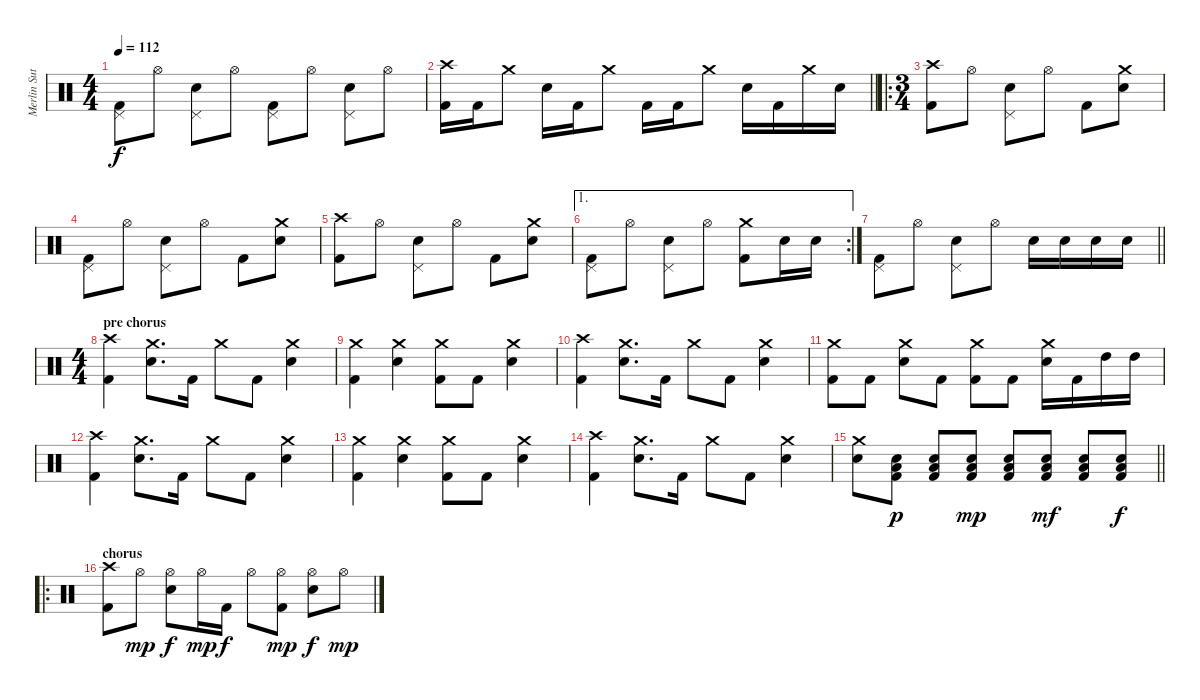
\track ("Merlin Sutter" "Merlin Sut") {instrument percussion}
\staff {score}
\articulation defaults
\ts (4 4)
\tempo 112
\clef neutral
\ks c
("Pedal Hi-Hat (hit)" "Kick (hit) 2").8{dy f} "Hi-Hat (open)".8 ("Pedal Hi-Hat (hit)" "Snare (hit) 2").8 "Hi-Hat (open)".8 ("Pedal Hi-Hat (hit)" "Kick (hit) 2").8 "Hi-Hat (open)".8 ("Pedal Hi-Hat (hit)" "Snare (hit) 2").8 "Hi-Hat (open)".8 |
\barLineRight lightlight
("Crash high (hit)" "Kick (hit) 2").16 "Kick (hit) 2".16 "Crash medium (hit)".8 "Snare (hit) 2".16 "Kick (hit) 2".16 "Crash medium (hit)".8 "Kick (hit) 2".16 "Kick (hit) 2".16 "Crash medium (hit)".8 "Snare (hit) 2".16 "Kick (hit) 2".16 "Crash medium (hit)".16 "Snare (hit) 2".16 |
\ro
\ts (3 4)
\section ("" "")
("Crash high (hit)" "Kick (hit) 2").8 "Hi-Hat (open)".8 ("Pedal Hi-Hat (hit)" "Snare (hit) 2").8 "Hi-Hat (open)".8 "Kick (hit) 2".8 ("Crash medium (hit)" "Snare (hit) 2").8 |
("Pedal Hi-Hat (hit)" "Kick (hit) 2").8 "Hi-Hat (open)".8 ("Pedal Hi-Hat (hit)" "Snare (hit) 2").8 "Hi-Hat (open)".8 "Kick (hit) 2".8 ("Crash medium (hit)" "Snare (hit) 2").8 |
("Crash high (hit)" "Kick (hit) 2").8 "Hi-Hat (open)".8 ("Pedal Hi-Hat (hit)" "Snare (hit) 2").8 "Hi-Hat (open)".8 "Kick (hit) 2".8 ("Crash medium (hit)" "Snare (hit) 2").8 |
\ae 1
\rc 2
("Pedal Hi-Hat (hit)" "Kick (hit) 2").8 "Hi-Hat (open)".8 ("Pedal Hi-Hat (hit)" "Snare (hit) 2").8 "Hi-Hat (open)".8 ("Crash medium (hit)" "Kick (hit) 2").8 "Snare (hit) 2".16 "Snare (hit) 2".16 |
\barLineRight lightlight
("Pedal Hi-Hat (hit)" "Kick (hit) 2").8 "Hi-Hat (open)".8 ("Pedal Hi-Hat (hit)" "Snare (hit) 2").8 "Hi-Hat (open)".8 "Snare (hit) 2".16 "Snare (hit) 2".16 "Snare (hit) 2".16 "Snare (hit) 2".16 |
\ts (4 4)
\section ("" "pre chorus")
("Crash high (hit)" "Kick (hit) 2").4 ("Crash medium (hit)" "Snare (hit) 2").8{d} "Kick (hit) 2".16 "Crash medium (hit)".8 "Kick (hit) 2".8 ("Crash medium (hit)" "Snare (hit) 2").4 |
("Crash medium (hit)" "Kick (hit) 2").4 ("Crash medium (hit)" "Snare (hit) 2").4 ("Crash medium (hit)" "Kick (hit) 2").8 "Kick (hit) 2".8 ("Crash medium (hit)" "Snare (hit) 2").4 |
("Crash high (hit)" "Kick (hit) 2").4 ("Crash medium (hit)" "Snare (hit) 2").8{d} "Kick (hit) 2".16 "Crash medium (hit)".8 "Kick (hit) 2".8 ("Crash medium (hit)" "Snare (hit) 2").4 |
("Crash medium (hit)" "Kick (hit) 2").8 "Kick (hit) 2".8 ("Crash medium (hit)" "Snare (hit) 2").8 "Kick (hit) 2".8 ("Crash medium (hit)" "Kick (hit) 2").8 "Kick (hit) 2".8 ("Crash medium (hit)" "Snare (hit) 2").16 "Kick (hit) 2".16 "High Tom (hit)".16 "High Tom (hit)".16 |
("Crash high (hit)" "Kick (hit) 2").4 ("Crash medium (hit)" "Snare (hit) 2").8{d} "Kick (hit) 2".16 "Crash medium (hit)".8 "Kick (hit) 2".8 ("Crash medium (hit)" "Snare (hit) 2").4 |
("Crash medium (hit)" "Kick (hit) 2").4 ("Crash medium (hit)" "Snare (hit) 2").4 ("Crash medium (hit)" "Kick (hit) 2").8 "Kick (hit) 2".8 ("Crash medium (hit)" "Snare (hit) 2").4 |
("Crash high (hit)" "Kick (hit) 2").4 ("Crash medium (hit)" "Snare (hit) 2").8{d} "Kick (hit) 2".16 "Crash medium (hit)".8 "Kick (hit) 2".8 ("Crash medium (hit)" "Snare (hit) 2").4 |
\barLineRight lightlight
("Crash medium (hit)" "Snare (hit) 2").8 ("Low Tom (hit)" "Snare (hit) 2" "Kick (hit) 2").8{dy p} ("Low Tom (hit)" "Snare (hit) 2" "Kick (hit) 2").8 ("Low Tom (hit)" "Snare (hit) 2" "Kick (hit) 2").8{dy mp} ("Low Tom (hit)" "Snare (hit) 2" "Kick (hit) 2").8 ("Low Tom (hit)" "Snare (hit) 2" "Kick (hit) 2").8{dy mf} ("Low Tom (hit)" "Snare (hit) 2" "Kick (hit) 2").8 ("Low Tom (hit)" "Snare (hit) 2" "Kick (hit) 2").8{dy f} |
\ro
\section ("" "chorus")
("Crash high (hit)" "Kick (hit) 2").8 "Hi-Hat (open)".8{dy mp} ("Hi-Hat (open)" "Snare (hit) 2").8{dy f} "Hi-Hat (open)".16{dy mp} "Kick (hit) 2".16{dy f} "Hi-Hat (open)".8 ("Hi-Hat (open)" "Kick (hit) 2").8{dy mp} ("Hi-Hat (open)" "Snare (hit) 2").8{dy f} "Hi-Hat (open)".8{dy mp}
